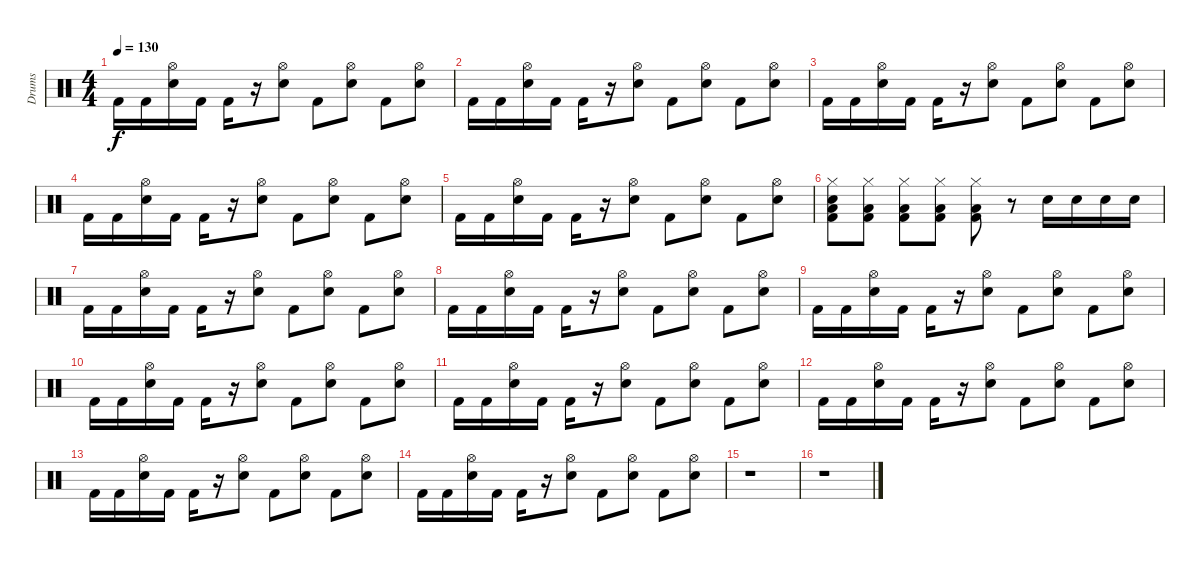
\track ("Drums" "Drums") {instrument percussion}
\staff {score}
\articulation defaults
\ts (4 4)
\tempo 130
\clef neutral
\ks c "Kick (hit) 2".16{dy f} "Kick (hit) 2".16
("Snare (hit) 2" "Hi-Hat (open)").16 "Kick (hit) 2".16 "Kick (hit) 2".16 r.16 ("Snare (hit) 2" "Hi-Hat (open)").8 "Kick (hit) 2".8 ("Snare (hit) 2" "Hi-Hat (open)").8 "Kick (hit) 2".8 ("Snare (hit) 2" "Hi-Hat (open)").8 |
"Kick (hit) 2".16 "Kick (hit) 2".16 ("Snare (hit) 2" "Hi-Hat (open)").16 "Kick (hit) 2".16 "Kick (hit) 2".16 r.16 ("Snare (hit) 2" "Hi-Hat (open)").8 "Kick (hit) 2".8 ("Snare (hit) 2" "Hi-Hat (open)").8 "Kick (hit) 2".8 ("Snare (hit) 2" "Hi-Hat (open)").8 |
"Kick (hit) 2".16 "Kick (hit) 2".16 ("Snare (hit) 2" "Hi-Hat (open)").16 "Kick (hit) 2".16 "Kick (hit) 2".16 r.16 ("Snare (hit) 2" "Hi-Hat (open)").8 "Kick (hit) 2".8 ("Snare (hit) 2" "Hi-Hat (open)").8 "Kick (hit) 2".8 ("Snare (hit) 2" "Hi-Hat (open)").8 |
"Kick (hit) 2".16 "Kick (hit) 2".16 ("Snare (hit) 2" "Hi-Hat (open)").16 "Kick (hit) 2".16 "Kick (hit) 2".16 r.16 ("Snare (hit) 2" "Hi-Hat (open)").8 "Kick (hit) 2".8 ("Snare (hit) 2" "Hi-Hat (open)").8 "Kick (hit) 2".8 ("Snare (hit) 2" "Hi-Hat (open)").8 |
"Kick (hit) 2".16 "Kick (hit) 2".16 ("Snare (hit) 2" "Hi-Hat (open)").16 "Kick (hit) 2".16 "Kick (hit) 2".16 r.16 ("Snare (hit) 2" "Hi-Hat (open)").8 "Kick (hit) 2".8 ("Snare (hit) 2" "Hi-Hat (open)").8 "Kick (hit) 2".8 ("Snare (hit) 2" "Hi-Hat (open)").8 |
("Kick (hit) 2" "Snare (hit) 2" "Low Floor Tom (hit)" "Hi-Hat (closed)").8 ("Kick (hit) 2" "Low Floor Tom (hit)" "Hi-Hat (closed)").8 ("Kick (hit) 2" "Low Floor Tom (hit)" "Hi-Hat (closed)").8 ("Kick (hit) 2" "Low Floor Tom (hit)" "Hi-Hat (closed)").8 ("Kick (hit) 2" "Low Floor Tom (hit)" "Hi-Hat (closed)").8 r.8 "Snare (hit) 2".16 "Snare (hit) 2".16 "Snare (hit) 2".16 "Snare (hit) 2".16 |
"Kick (hit) 2".16 "Kick (hit) 2".16 ("Snare (hit) 2" "Hi-Hat (open)").16 "Kick (hit) 2".16 "Kick (hit) 2".16 r.16 ("Snare (hit) 2" "Hi-Hat (open)").8 "Kick (hit) 2".8 ("Snare (hit) 2" "Hi-Hat (open)").8 "Kick (hit) 2".8 ("Snare (hit) 2" "Hi-Hat (open)").8 |
"Kick (hit) 2".16 "Kick (hit) 2".16 ("Snare (hit) 2" "Hi-Hat (open)").16 "Kick (hit) 2".16 "Kick (hit) 2".16 r.16 ("Snare (hit) 2" "Hi-Hat (open)").8 "Kick (hit) 2".8 ("Snare (hit) 2" "Hi-Hat (open)").8 "Kick (hit) 2".8 ("Snare (hit) 2" "Hi-Hat (open)").8 |
"Kick (hit) 2".16 "Kick (hit) 2".16 ("Snare (hit) 2" "Hi-Hat (open)").16 "Kick (hit) 2".16 "Kick (hit) 2".16 r.16 ("Snare (hit) 2" "Hi-Hat (open)").8 "Kick (hit) 2".8 ("Snare (hit) 2" "Hi-Hat (open)").8 "Kick (hit) 2".8 ("Snare (hit) 2" "Hi-Hat (open)").8 |
"Kick (hit) 2".16 "Kick (hit) 2".16 ("Snare (hit) 2" "Hi-Hat (open)").16 "Kick (hit) 2".16 "Kick (hit) 2".16 r.16 ("Snare (hit) 2" "Hi-Hat (open)").8 "Kick (hit) 2".8 ("Snare (hit) 2" "Hi-Hat (open)").8 "Kick (hit) 2".8 ("Snare (hit) 2" "Hi-Hat (open)").8 |
"Kick (hit) 2".16 "Kick (hit) 2".16 ("Snare (hit) 2" "Hi-Hat (open)").16 "Kick (hit) 2".16 "Kick (hit) 2".16 r.16 ("Snare (hit) 2" "Hi-Hat (open)").8 "Kick (hit) 2".8 ("Snare (hit) 2" "Hi-Hat (open)").8 "Kick (hit) 2".8 ("Snare (hit) 2" "Hi-Hat (open)").8 |
"Kick (hit) 2".16 "Kick (hit) 2".16 ("Snare (hit) 2" "Hi-Hat (open)").16 "Kick (hit) 2".16 "Kick (hit) 2".16 r.16 ("Snare (hit) 2" "Hi-Hat (open)").8 "Kick (hit) 2".8 ("Snare (hit) 2" "Hi-Hat (open)").8 "Kick (hit) 2".8 ("Snare (hit) 2" "Hi-Hat (open)").8 |
"Kick (hit) 2".16 "Kick (hit) 2".16 ("Snare (hit) 2" "Hi-Hat (open)").16 "Kick (hit) 2".16 "Kick (hit) 2".16 r.16 ("Snare (hit) 2" "Hi-Hat (open)").8 "Kick (hit) 2".8 ("Snare (hit) 2" "Hi-Hat (open)").8 "Kick (hit) 2".8 ("Snare (hit) 2" "Hi-Hat (open)").8 |
"Kick (hit) 2".16 "Kick (hit) 2".16 ("Snare (hit) 2" "Hi-Hat (open)").16 "Kick (hit) 2".16 "Kick (hit) 2".16 r.16 ("Snare (hit) 2" "Hi-Hat (open)").8 "Kick (hit) 2".8 ("Snare (hit) 2" "Hi-Hat (open)").8 "Kick (hit) 2".8 ("Snare (hit) 2" "Hi-Hat (open)").8 |
r.1 |
r.1
